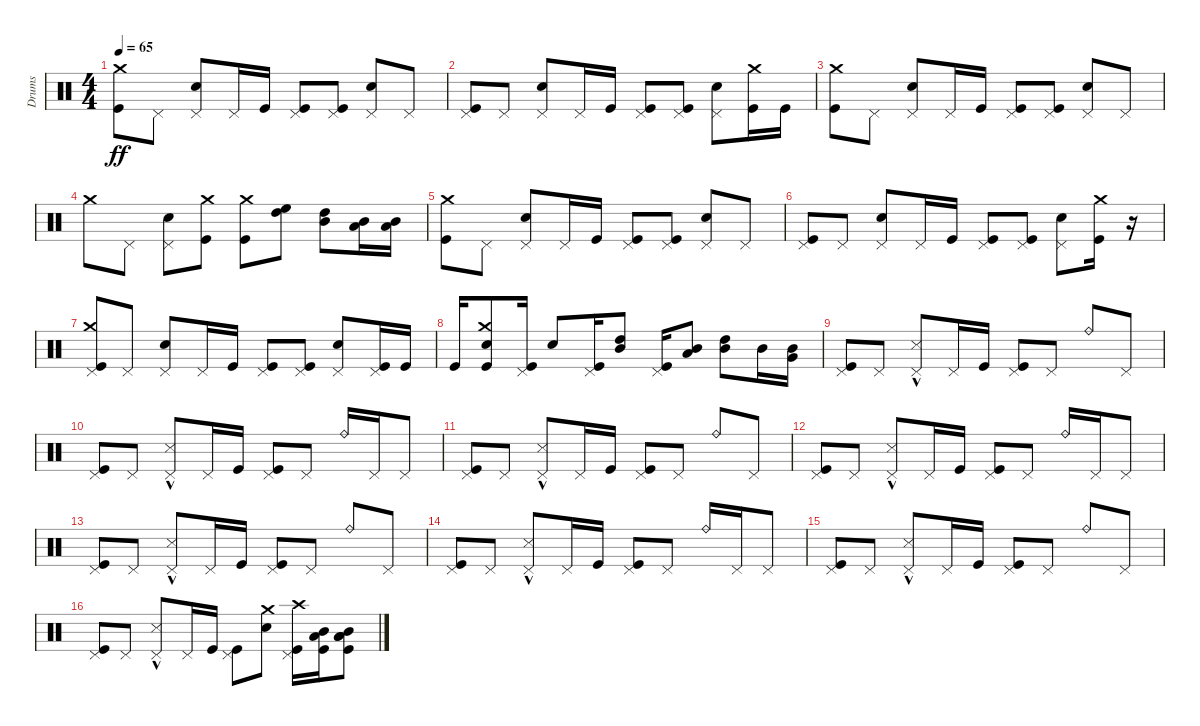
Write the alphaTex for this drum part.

\track ("Drums" "Drums") {instrument percussion}
\staff {score}
\articulation defaults
\ts (4 4)
\tempo 65
\clef neutral
\ks c
("Kick (hit)" "Crash medium (hit)").8{dy ff} "Pedal Hi-Hat (hit)".8 ("Electric Snare (hit)" "Pedal Hi-Hat (hit)").8 "Pedal Hi-Hat (hit)".16 "Kick (hit)".16 ("Kick (hit)" "Pedal Hi-Hat (hit)").8 ("Kick (hit)" "Pedal Hi-Hat (hit)").8 ("Electric Snare (hit)" "Pedal Hi-Hat (hit)").8 "Pedal Hi-Hat (hit)".8 |
("Kick (hit)" "Pedal Hi-Hat (hit)").8 "Pedal Hi-Hat (hit)".8 ("Electric Snare (hit)" "Pedal Hi-Hat (hit)").8 "Pedal Hi-Hat (hit)".16 "Kick (hit)".16 ("Kick (hit)" "Pedal Hi-Hat (hit)").8 ("Kick (hit)" "Pedal Hi-Hat (hit)").8 ("Electric Snare (hit)" "Pedal Hi-Hat (hit)").8 ("Kick (hit)" "Crash medium (hit)").16 "Kick (hit)".16 |
("Kick (hit)" "Crash medium (hit)").8 "Pedal Hi-Hat (hit)".8 ("Electric Snare (hit)" "Pedal Hi-Hat (hit)").8 "Pedal Hi-Hat (hit)".16 "Kick (hit)".16 ("Kick (hit)" "Pedal Hi-Hat (hit)").8 ("Kick (hit)" "Pedal Hi-Hat (hit)").8 ("Electric Snare (hit)" "Pedal Hi-Hat (hit)").8 "Pedal Hi-Hat (hit)".8 |
"Crash medium (hit)".8 "Pedal Hi-Hat (hit)".8 ("Electric Snare (hit)" "Pedal Hi-Hat (hit)").8 ("Kick (hit)" "Crash medium (hit)").8 ("Kick (hit)" "Crash medium (hit)").8 ("High Tom (hit)" "High Floor Tom (hit)").8 ("Mid Tom (hit)" "High Tom (hit)").8 ("Low Tom (hit)" "Mid Tom (hit)").16 ("Low Tom (hit)" "Mid Tom (hit)").16 |
("Kick (hit)" "Crash medium (hit)").8 "Pedal Hi-Hat (hit)".8 ("Electric Snare (hit)" "Pedal Hi-Hat (hit)").8 "Pedal Hi-Hat (hit)".16 "Kick (hit)".16 ("Kick (hit)" "Pedal Hi-Hat (hit)").8 ("Kick (hit)" "Pedal Hi-Hat (hit)").8 ("Electric Snare (hit)" "Pedal Hi-Hat (hit)").8 "Pedal Hi-Hat (hit)".8 |
("Kick (hit)" "Pedal Hi-Hat (hit)").8 "Pedal Hi-Hat (hit)".8 ("Electric Snare (hit)" "Pedal Hi-Hat (hit)").8 "Pedal Hi-Hat (hit)".16 "Kick (hit)".16 ("Kick (hit)" "Pedal Hi-Hat (hit)").8 ("Kick (hit)" "Pedal Hi-Hat (hit)").8 ("Electric Snare (hit)" "Pedal Hi-Hat (hit)").8 ("Kick (hit)" "Crash medium (hit)").16 r.16 |
("Kick (hit)" "Pedal Hi-Hat (hit)" "Crash medium (hit)").8 "Pedal Hi-Hat (hit)".8 ("Electric Snare (hit)" "Pedal Hi-Hat (hit)").8 "Pedal Hi-Hat (hit)".16 "Kick (hit)".16 ("Kick (hit)" "Pedal Hi-Hat (hit)").8 ("Kick (hit)" "Pedal Hi-Hat (hit)").8 ("Electric Snare (hit)" "Pedal Hi-Hat (hit)").8 ("Kick (hit)" "Pedal Hi-Hat (hit)").16 "Kick (hit)".16 |
"Kick (hit)".16 ("Kick (hit)" "Electric Snare (hit)" "Crash medium (hit)").8 ("Kick (hit)" "Pedal Hi-Hat (hit)").16 "Electric Snare (hit)".8 ("Kick (hit)" "Pedal Hi-Hat (hit)").16 ("Mid Tom (hit)" "High Tom (hit)").8 ("Kick (hit)" "Pedal Hi-Hat (hit)").16 ("Low Tom (hit)" "Mid Tom (hit)").8 ("Mid Tom (hit)" "High Tom (hit)").8 "Mid Tom (hit)".16 ("Very Low Tom (hit)" "Mid Tom (hit)").16 |
("Kick (hit)" "Pedal Hi-Hat (hit)").8 "Pedal Hi-Hat (hit)".8 ("Snare (side stick) 3"{hac} "Pedal Hi-Hat (hit)").8 "Pedal Hi-Hat (hit)".16 "Kick (hit)".16 ("Kick (hit)" "Pedal Hi-Hat (hit)").8 "Pedal Hi-Hat (hit)".8 "Ride (bell)".8 "Pedal Hi-Hat (hit)".8 |
("Kick (hit)" "Pedal Hi-Hat (hit)").8 "Pedal Hi-Hat (hit)".8 ("Snare (side stick) 3"{hac} "Pedal Hi-Hat (hit)").8 "Pedal Hi-Hat (hit)".16 "Kick (hit)".16 ("Kick (hit)" "Pedal Hi-Hat (hit)").8 "Pedal Hi-Hat (hit)".8 "Ride (bell)".16 "Pedal Hi-Hat (hit)".16 "Pedal Hi-Hat (hit)".8 |
("Kick (hit)" "Pedal Hi-Hat (hit)").8 "Pedal Hi-Hat (hit)".8 ("Snare (side stick) 3"{hac} "Pedal Hi-Hat (hit)").8 "Pedal Hi-Hat (hit)".16 "Kick (hit)".16 ("Kick (hit)" "Pedal Hi-Hat (hit)").8 "Pedal Hi-Hat (hit)".8 "Ride (bell)".8 "Pedal Hi-Hat (hit)".8 |
("Kick (hit)" "Pedal Hi-Hat (hit)").8 "Pedal Hi-Hat (hit)".8 ("Snare (side stick) 3"{hac} "Pedal Hi-Hat (hit)").8 "Pedal Hi-Hat (hit)".16 "Kick (hit)".16 ("Kick (hit)" "Pedal Hi-Hat (hit)").8 "Pedal Hi-Hat (hit)".8 "Ride (bell)".16 "Pedal Hi-Hat (hit)".16 "Pedal Hi-Hat (hit)".8 |
("Kick (hit)" "Pedal Hi-Hat (hit)").8 "Pedal Hi-Hat (hit)".8 ("Snare (side stick) 3"{hac} "Pedal Hi-Hat (hit)").8 "Pedal Hi-Hat (hit)".16 "Kick (hit)".16 ("Kick (hit)" "Pedal Hi-Hat (hit)").8 "Pedal Hi-Hat (hit)".8 "Ride (bell)".8 "Pedal Hi-Hat (hit)".8 |
("Kick (hit)" "Pedal Hi-Hat (hit)").8 "Pedal Hi-Hat (hit)".8 ("Snare (side stick) 3"{hac} "Pedal Hi-Hat (hit)").8 "Pedal Hi-Hat (hit)".16 "Kick (hit)".16 ("Kick (hit)" "Pedal Hi-Hat (hit)").8 "Pedal Hi-Hat (hit)".8 "Ride (bell)".16 "Pedal Hi-Hat (hit)".16 "Pedal Hi-Hat (hit)".8 |
("Kick (hit)" "Pedal Hi-Hat (hit)").8 "Pedal Hi-Hat (hit)".8 ("Snare (side stick) 3"{hac} "Pedal Hi-Hat (hit)").8 "Pedal Hi-Hat (hit)".16 "Kick (hit)".16 ("Kick (hit)" "Pedal Hi-Hat (hit)").8 "Pedal Hi-Hat (hit)".8 "Ride (bell)".8 "Pedal Hi-Hat (hit)".8 |
("Kick (hit)" "Pedal Hi-Hat (hit)").8 "Pedal Hi-Hat (hit)".8 ("Snare (side stick) 3"{hac} "Pedal Hi-Hat (hit)").8 "Pedal Hi-Hat (hit)".16 "Kick (hit)".16 ("Kick (hit)" "Pedal Hi-Hat (hit)").8 ("Electric Snare (hit)" "Crash medium (hit)").8 ("Kick (hit)" "Pedal Hi-Hat (hit)" "Crash high (hit)").16 ("Kick (hit)" "Low Floor Tom (hit)" "Mid Tom (hit)").16 ("Kick (hit)" "Low Floor Tom (hit)" "Low Tom (hit)" "Mid Tom (hit)").8
